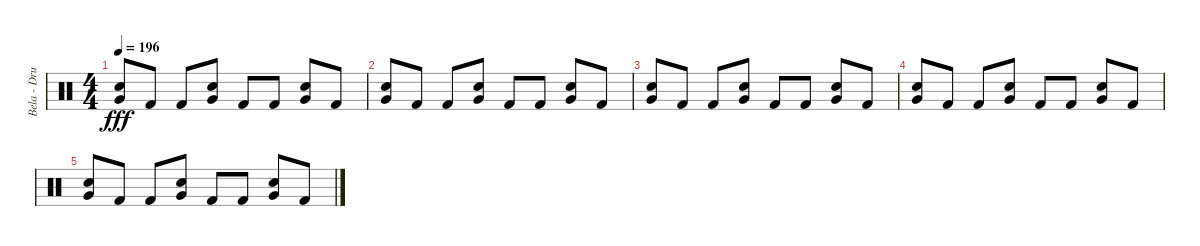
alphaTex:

\track ("Bela - Drums" "Bela - Dru") {instrument percussion}
\staff {score}
\articulation defaults
\ts (4 4)
\tempo 196
\clef neutral
\ks c
("Electric Snare (hit)" "Very Low Tom (hit)").8{dy fff} "Kick (hit) 2".8 "Kick (hit) 2".8 ("Electric Snare (hit)" "Very Low Tom (hit)").8 "Kick (hit) 2".8 "Kick (hit) 2".8 ("Electric Snare (hit)" "Very Low Tom (hit)").8 "Kick (hit) 2".8 |
("Electric Snare (hit)" "Very Low Tom (hit)").8 "Kick (hit) 2".8 "Kick (hit) 2".8 ("Electric Snare (hit)" "Very Low Tom (hit)").8 "Kick (hit) 2".8 "Kick (hit) 2".8 ("Electric Snare (hit)" "Very Low Tom (hit)").8 "Kick (hit) 2".8 |
("Electric Snare (hit)" "Very Low Tom (hit)").8 "Kick (hit) 2".8 "Kick (hit) 2".8 ("Electric Snare (hit)" "Very Low Tom (hit)").8 "Kick (hit) 2".8 "Kick (hit) 2".8 ("Electric Snare (hit)" "Very Low Tom (hit)").8 "Kick (hit) 2".8 |
("Electric Snare (hit)" "Very Low Tom (hit)").8 "Kick (hit) 2".8 "Kick (hit) 2".8 ("Electric Snare (hit)" "Very Low Tom (hit)").8 "Kick (hit) 2".8 "Kick (hit) 2".8 ("Electric Snare (hit)" "Very Low Tom (hit)").8 "Kick (hit) 2".8 |
("Electric Snare (hit)" "Very Low Tom (hit)").8 "Kick (hit) 2".8 "Kick (hit) 2".8 ("Electric Snare (hit)" "Very Low Tom (hit)").8 "Kick (hit) 2".8 "Kick (hit) 2".8 ("Electric Snare (hit)" "Very Low Tom (hit)").8 "Kick (hit) 2".8
